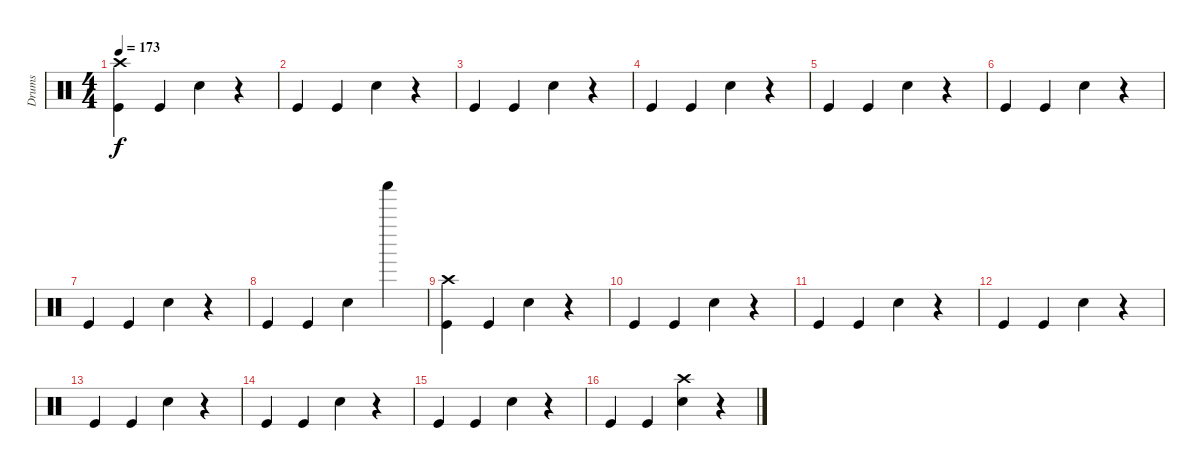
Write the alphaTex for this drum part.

\track ("Drums" "Drums") {instrument percussion}
\staff {score}
\articulation defaults
\ts (4 4)
\tempo 173
\clef neutral
\ks c
("Kick (hit)" "Crash high (hit)").4{dy f} "Kick (hit)".4 "Snare (hit) 2".4 r.4 |
"Kick (hit)".4 "Kick (hit)".4 "Snare (hit) 2".4 r.4 |
"Kick (hit)".4 "Kick (hit)".4 "Snare (hit) 2".4 r.4 |
"Kick (hit)".4 "Kick (hit)".4 "Snare (hit) 2".4 r.4 |
"Kick (hit)".4 "Kick (hit)".4 "Snare (hit) 2".4 r.4 |
"Kick (hit)".4 "Kick (hit)".4 "Snare (hit) 2".4 r.4 |
"Kick (hit)".4 "Kick (hit)".4 "Snare (hit) 2".4 r.4 |
"Kick (hit)".4 "Kick (hit)".4 "Snare (hit) 2".4 "Shaker (hit)".4 |
("Kick (hit)" "Crash high (hit)").4 "Kick (hit)".4 "Snare (hit) 2".4 r.4 |
"Kick (hit)".4 "Kick (hit)".4 "Snare (hit) 2".4 r.4 |
"Kick (hit)".4 "Kick (hit)".4 "Snare (hit) 2".4 r.4 |
"Kick (hit)".4 "Kick (hit)".4 "Snare (hit) 2".4 r.4 |
"Kick (hit)".4 "Kick (hit)".4 "Snare (hit) 2".4 r.4 |
"Kick (hit)".4 "Kick (hit)".4 "Snare (hit) 2".4 r.4 |
"Kick (hit)".4 "Kick (hit)".4 "Snare (hit) 2".4 r.4 |
"Kick (hit)".4 "Kick (hit)".4 ("Snare (hit) 2" "Crash high (hit)").4 r.4
